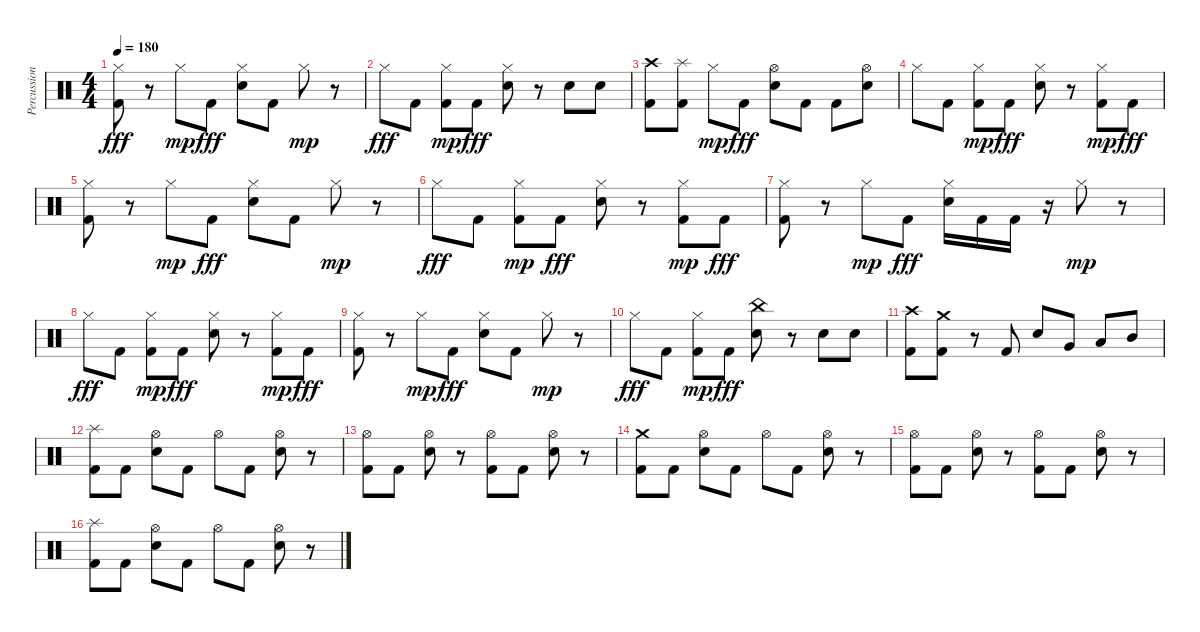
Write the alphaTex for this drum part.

\track ("Percussion" "Percussion") {instrument percussion}
\staff {score}
\articulation defaults
\ts (4 4)
\tempo 180
\clef neutral
\ks c
("Kick (hit) 2" "Hi-Hat (closed)").8{dy fff} r.8 "Hi-Hat (closed)".8{dy mp} "Kick (hit) 2".8{dy fff} ("Snare (hit) 2" "Hi-Hat (closed)").8 "Kick (hit) 2".8 "Hi-Hat (closed)".8{dy mp} r.8 |
"Hi-Hat (closed)".8{dy fff} "Kick (hit) 2".8 ("Kick (hit) 2" "Hi-Hat (closed)").8{dy mp} "Kick (hit) 2".8{dy fff} ("Snare (hit) 2" "Hi-Hat (closed)").8 r.8 "Snare (hit) 2".8 "Snare (hit) 2".8 |
("Kick (hit) 2" "Crash high (hit)").8 ("Kick (hit) 2" "Splash (hit)").8 "Hi-Hat (closed)".8{dy mp} "Kick (hit) 2".8{dy fff} ("Snare (hit) 2" "Hi-Hat (open)").8 "Kick (hit) 2".8 "Kick (hit) 2".8 ("Hi-Hat (open)" "Snare (hit) 2").8 |
"Hi-Hat (closed)".8 "Kick (hit) 2".8 ("Kick (hit) 2" "Hi-Hat (closed)").8{dy mp} "Kick (hit) 2".8{dy fff} ("Snare (hit) 2" "Hi-Hat (closed)").8 r.8 ("Kick (hit) 2" "Hi-Hat (closed)").8{dy mp} "Kick (hit) 2".8{dy fff} |
("Kick (hit) 2" "Hi-Hat (closed)").8 r.8 "Hi-Hat (closed)".8{dy mp} "Kick (hit) 2".8{dy fff} ("Snare (hit) 2" "Hi-Hat (closed)").8 "Kick (hit) 2".8 "Hi-Hat (closed)".8{dy mp} r.8 |
"Hi-Hat (closed)".8{dy fff} "Kick (hit) 2".8 ("Kick (hit) 2" "Hi-Hat (closed)").8{dy mp} "Kick (hit) 2".8{dy fff} ("Snare (hit) 2" "Hi-Hat (closed)").8 r.8 ("Kick (hit) 2" "Hi-Hat (closed)").8{dy mp} "Kick (hit) 2".8{dy fff} |
("Kick (hit) 2" "Hi-Hat (closed)").8 r.8 "Hi-Hat (closed)".8{dy mp} "Kick (hit) 2".8{dy fff} ("Snare (hit) 2" "Hi-Hat (closed)").16 "Kick (hit) 2".16 "Kick (hit) 2".16 r.16 "Hi-Hat (closed)".8{dy mp} r.8 |
"Hi-Hat (closed)".8{dy fff} "Kick (hit) 2".8 ("Kick (hit) 2" "Hi-Hat (closed)").8{dy mp} "Kick (hit) 2".8{dy fff} ("Snare (hit) 2" "Hi-Hat (closed)").8 r.8 ("Kick (hit) 2" "Hi-Hat (closed)").8{dy mp} "Kick (hit) 2".8{dy fff} |
("Kick (hit) 2" "Hi-Hat (closed)").8 r.8 "Hi-Hat (closed)".8{dy mp} "Kick (hit) 2".8{dy fff} ("Snare (hit) 2" "Hi-Hat (closed)").8 "Kick (hit) 2".8 "Hi-Hat (closed)".8{dy mp} r.8 |
"Hi-Hat (closed)".8{dy fff} "Kick (hit) 2".8 ("Kick (hit) 2" "Hi-Hat (closed)").8{dy mp} "Kick (hit) 2".8{dy fff} ("Snare (hit) 2" "China (hit)").8 r.8 "Snare (hit) 2".8 "Snare (hit) 2".8 |
("Kick (hit) 2" "Crash high (hit)").8 ("Kick (hit) 2" "Crash medium (hit)").8 r.8 "Kick (hit) 2".8 "Snare (hit) 2".8 "Very Low Tom (hit)".8 "Low Tom (hit)".8 "Mid Tom (hit)".8 |
("Kick (hit) 2" "Splash (hit)").8 "Kick (hit) 2".8 ("Hi-Hat (open)" "Snare (hit) 2").8 "Kick (hit) 2".8 "Hi-Hat (open)".8 "Kick (hit) 2".8 ("Hi-Hat (open)" "Snare (hit) 2").8 r.8 |
("Hi-Hat (open)" "Kick (hit) 2").8 "Kick (hit) 2".8 ("Hi-Hat (open)" "Snare (hit) 2").8 r.8 ("Hi-Hat (open)" "Kick (hit) 2").8 "Kick (hit) 2".8 ("Hi-Hat (open)" "Snare (hit) 2").8 r.8 |
("Kick (hit) 2" "Crash medium (hit)").8 "Kick (hit) 2".8 ("Hi-Hat (open)" "Snare (hit) 2").8 "Kick (hit) 2".8 "Hi-Hat (open)".8 "Kick (hit) 2".8 ("Hi-Hat (open)" "Snare (hit) 2").8 r.8 |
("Hi-Hat (open)" "Kick (hit) 2").8 "Kick (hit) 2".8 ("Hi-Hat (open)" "Snare (hit) 2").8 r.8 ("Hi-Hat (open)" "Kick (hit) 2").8 "Kick (hit) 2".8 ("Hi-Hat (open)" "Snare (hit) 2").8 r.8 |
("Kick (hit) 2" "Splash (hit)").8 "Kick (hit) 2".8 ("Hi-Hat (open)" "Snare (hit) 2").8 "Kick (hit) 2".8 "Hi-Hat (open)".8 "Kick (hit) 2".8 ("Hi-Hat (open)" "Snare (hit) 2").8 r.8
